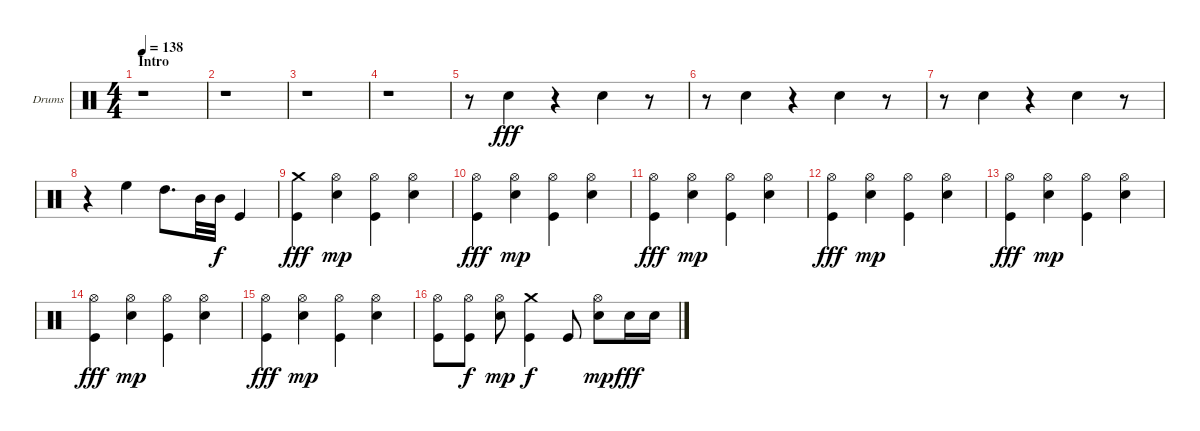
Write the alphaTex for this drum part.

\bracketExtendMode groupsimilarinstruments
\firstSystemTrackNameOrientation horizontal
\otherSystemsTrackNameOrientation horizontal
\track ("Drumkit" "Drums") {instrument percussion}
\staff {score}
\articulation defaults
\ts (4 4)
\section ("" "Intro")
\tempo 138
\clef neutral
\ks c
r.1{dy fff} |
r.1 |
r.1 |
r.1 |
r.8 "Snare (hit) 2".4 r.4 "Snare (hit) 2".4 r.8 |
r.8 "Snare (hit) 2".4 r.4 "Snare (hit) 2".4 r.8 |
r.8 "Snare (hit) 2".4 r.4 "Snare (hit) 2".4 r.8 |
r.4 "High Floor Tom (hit)".4 "High Tom (hit)".8{d} "Mid Tom (hit)".32 "Mid Tom (hit)".32{dy f} "Kick (hit)".4 |
("Crash medium (hit)" "Kick (hit)").4{dy fff} ("Hi-Hat (open)" "Snare (hit) 2").4{dy mp} ("Hi-Hat (open)" "Kick (hit)").4 ("Hi-Hat (open)" "Snare (hit) 2").4 |
("Hi-Hat (open)" "Kick (hit)").4{dy fff} ("Hi-Hat (open)" "Snare (hit) 2").4{dy mp} ("Hi-Hat (open)" "Kick (hit)").4 ("Hi-Hat (open)" "Snare (hit) 2").4 |
("Hi-Hat (open)" "Kick (hit)").4{dy fff} ("Hi-Hat (open)" "Snare (hit) 2").4{dy mp} ("Hi-Hat (open)" "Kick (hit)").4 ("Hi-Hat (open)" "Snare (hit) 2").4 |
("Hi-Hat (open)" "Kick (hit)").4{dy fff} ("Hi-Hat (open)" "Snare (hit) 2").4{dy mp} ("Hi-Hat (open)" "Kick (hit)").4 ("Hi-Hat (open)" "Snare (hit) 2").4 |
("Hi-Hat (open)" "Kick (hit)").4{dy fff} ("Hi-Hat (open)" "Snare (hit) 2").4{dy mp} ("Hi-Hat (open)" "Kick (hit)").4 ("Hi-Hat (open)" "Snare (hit) 2").4 |
("Hi-Hat (open)" "Kick (hit)").4{dy fff} ("Hi-Hat (open)" "Snare (hit) 2").4{dy mp} ("Hi-Hat (open)" "Kick (hit)").4 ("Hi-Hat (open)" "Snare (hit) 2").4 |
("Hi-Hat (open)" "Kick (hit)").4{dy fff} ("Hi-Hat (open)" "Snare (hit) 2").4{dy mp} ("Hi-Hat (open)" "Kick (hit)").4 ("Hi-Hat (open)" "Snare (hit) 2").4 |
("Hi-Hat (open)" "Kick (hit)").8 ("Hi-Hat (open)" "Kick (hit)").8{dy f} ("Hi-Hat (open)" "Snare (hit) 2").8{dy mp} ("Crash medium (hit)" "Kick (hit)").4{dy f} "Kick (hit)".8 ("Hi-Hat (open)" "Snare (hit) 2").8{dy mp} "Snare (hit) 2".16{dy fff} "Snare (hit) 2".16
